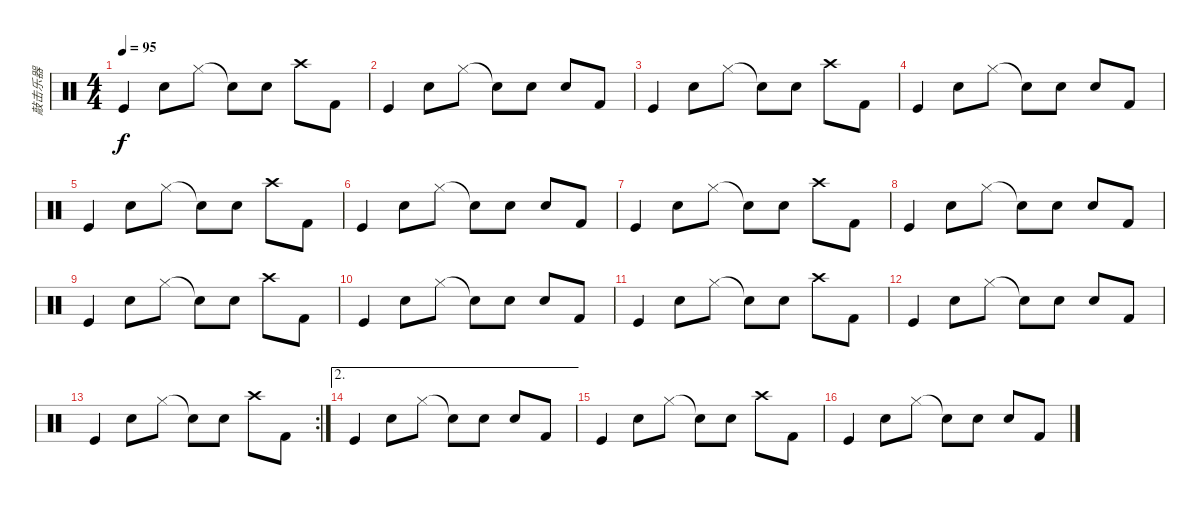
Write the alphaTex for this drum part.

\track ("敲击乐器" "敲击乐器") {instrument percussion}
\staff {score}
\articulation defaults
\ts (4 4)
\tempo 95
\clef neutral
\ks c "Kick (hit)".4{dy f} "Hand Clap (hit)".8 "Hi-Hat (closed)".8 "Snare (hit)"{t}.8 "Hand Clap (hit)".8 "Crash high (hit)".8 "Kick (hit) 2".8
|
"Kick (hit)".4 "Hand Clap (hit)".8 "Hi-Hat (closed)".8 "Snare (hit)"{t}.8 "Hand Clap (hit)".8 "Snare (hit) 2".8 "Kick (hit) 2".8 |
"Kick (hit)".4 "Hand Clap (hit)".8 "Hi-Hat (closed)".8 "Snare (hit)"{t}.8 "Hand Clap (hit)".8 "Crash high (hit)".8 "Kick (hit) 2".8 |
"Kick (hit)".4 "Hand Clap (hit)".8 "Hi-Hat (closed)".8 "Snare (hit)"{t}.8 "Hand Clap (hit)".8 "Snare (hit) 2".8 "Kick (hit) 2".8 |
"Kick (hit)".4 "Hand Clap (hit)".8 "Hi-Hat (closed)".8 "Snare (hit)"{t}.8 "Hand Clap (hit)".8 "Crash high (hit)".8 "Kick (hit) 2".8 |
"Kick (hit)".4 "Hand Clap (hit)".8 "Hi-Hat (closed)".8 "Snare (hit)"{t}.8 "Hand Clap (hit)".8 "Snare (hit) 2".8 "Kick (hit) 2".8 |
"Kick (hit)".4 "Hand Clap (hit)".8 "Hi-Hat (closed)".8 "Snare (hit)"{t}.8 "Hand Clap (hit)".8 "Crash high (hit)".8 "Kick (hit) 2".8 |
"Kick (hit)".4 "Hand Clap (hit)".8 "Hi-Hat (closed)".8 "Snare (hit)"{t}.8 "Hand Clap (hit)".8 "Snare (hit) 2".8 "Kick (hit) 2".8 |
"Kick (hit)".4 "Hand Clap (hit)".8 "Hi-Hat (closed)".8 "Snare (hit)"{t}.8 "Hand Clap (hit)".8 "Crash high (hit)".8 "Kick (hit) 2".8 |
"Kick (hit)".4 "Hand Clap (hit)".8 "Hi-Hat (closed)".8 "Snare (hit)"{t}.8 "Hand Clap (hit)".8 "Snare (hit) 2".8 "Kick (hit) 2".8 |
"Kick (hit)".4 "Hand Clap (hit)".8 "Hi-Hat (closed)".8 "Snare (hit)"{t}.8 "Hand Clap (hit)".8 "Crash high (hit)".8 "Kick (hit) 2".8 |
"Kick (hit)".4 "Hand Clap (hit)".8 "Hi-Hat (closed)".8 "Snare (hit)"{t}.8 "Hand Clap (hit)".8 "Snare (hit) 2".8 "Kick (hit) 2".8 |
\rc 2 "Kick (hit)".4 "Hand Clap (hit)".8 "Hi-Hat (closed)".8 "Snare (hit)"{t}.8 "Hand Clap (hit)".8 "Crash high (hit)".8 "Kick (hit) 2".8
|
\ae 2 "Kick (hit)".4 "Hand Clap (hit)".8 "Hi-Hat (closed)".8 "Snare (hit)"{t}.8 "Hand Clap (hit)".8 "Snare (hit) 2".8 "Kick (hit) 2".8
|
"Kick (hit)".4 "Hand Clap (hit)".8 "Hi-Hat (closed)".8 "Snare (hit)"{t}.8 "Hand Clap (hit)".8 "Crash high (hit)".8 "Kick (hit) 2".8 |
"Kick (hit)".4 "Hand Clap (hit)".8 "Hi-Hat (closed)".8 "Snare (hit)"{t}.8 "Hand Clap (hit)".8 "Snare (hit) 2".8 "Kick (hit) 2".8
